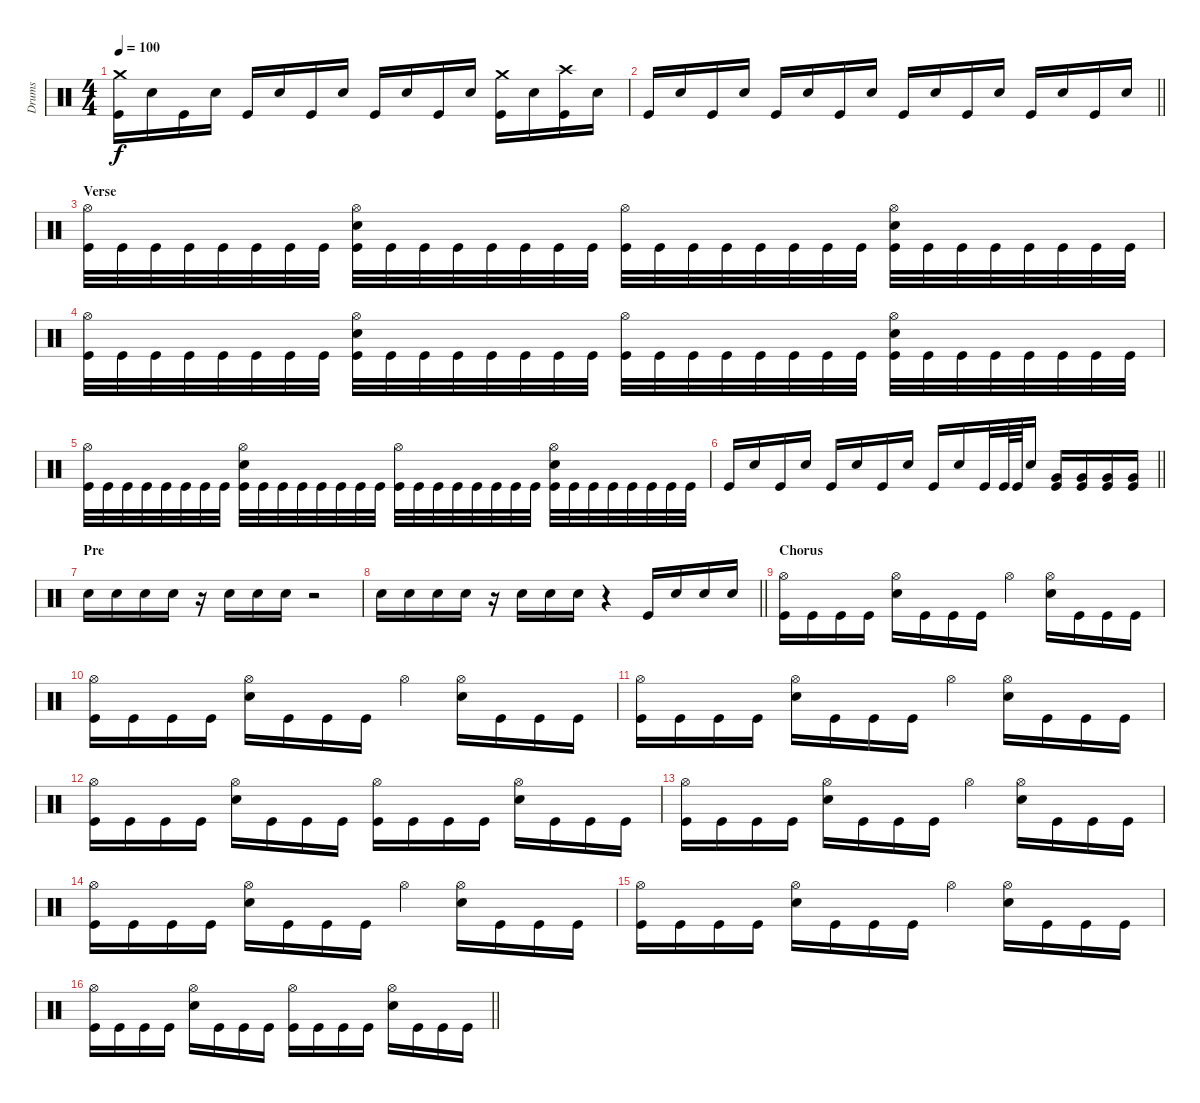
\track ("Drums" "Drums") {instrument percussion}
\staff {score}
\articulation defaults
\ts (4 4)
\tempo 100
\clef neutral
\ks c
("Crash medium (hit)" "Kick (hit)").16{dy f} "Electric Snare (hit)".16 "Kick (hit)".16 "Electric Snare (hit)".16 "Kick (hit)".16 "Electric Snare (hit)".16 "Kick (hit)".16 "Electric Snare (hit)".16 "Kick (hit)".16 "Electric Snare (hit)".16 "Kick (hit)".16 "Electric Snare (hit)".16 ("Crash medium (hit)" "Kick (hit)").16 "Electric Snare (hit)".16 ("Crash high (hit)" "Kick (hit)").16 "Electric Snare (hit)".16 |
\barLineRight lightlight "Kick (hit)".16 "Electric Snare (hit)".16 "Kick (hit)".16 "Electric Snare (hit)".16 "Kick (hit)".16 "Electric Snare (hit)".16 "Kick (hit)".16 "Electric Snare (hit)".16 "Kick (hit)".16 "Electric Snare (hit)".16 "Kick (hit)".16 "Electric Snare (hit)".16 "Kick (hit)".16 "Electric Snare (hit)".16 "Kick (hit)".16 "Electric Snare (hit)".16
|
\section ("" "Verse")
("Hi-Hat (open)" "Kick (hit)").32 "Kick (hit)".32 "Kick (hit)".32 "Kick (hit)".32 "Kick (hit)".32 "Kick (hit)".32 "Kick (hit)".32 "Kick (hit)".32 ("Hi-Hat (open)" "Electric Snare (hit)" "Kick (hit)").32 "Kick (hit)".32 "Kick (hit)".32 "Kick (hit)".32 "Kick (hit)".32 "Kick (hit)".32 "Kick (hit)".32 "Kick (hit)".32 ("Hi-Hat (open)" "Kick (hit)").32 "Kick (hit)".32 "Kick (hit)".32 "Kick (hit)".32 "Kick (hit)".32 "Kick (hit)".32 "Kick (hit)".32 "Kick (hit)".32 ("Hi-Hat (open)" "Electric Snare (hit)" "Kick (hit)").32 "Kick (hit)".32 "Kick (hit)".32 "Kick (hit)".32 "Kick (hit)".32 "Kick (hit)".32 "Kick (hit)".32 "Kick (hit)".32 |
("Hi-Hat (open)" "Kick (hit)").32 "Kick (hit)".32 "Kick (hit)".32 "Kick (hit)".32 "Kick (hit)".32 "Kick (hit)".32 "Kick (hit)".32 "Kick (hit)".32 ("Hi-Hat (open)" "Electric Snare (hit)" "Kick (hit)").32 "Kick (hit)".32 "Kick (hit)".32 "Kick (hit)".32 "Kick (hit)".32 "Kick (hit)".32 "Kick (hit)".32 "Kick (hit)".32 ("Hi-Hat (open)" "Kick (hit)").32 "Kick (hit)".32 "Kick (hit)".32 "Kick (hit)".32 "Kick (hit)".32 "Kick (hit)".32 "Kick (hit)".32 "Kick (hit)".32 ("Hi-Hat (open)" "Electric Snare (hit)" "Kick (hit)").32 "Kick (hit)".32 "Kick (hit)".32 "Kick (hit)".32 "Kick (hit)".32 "Kick (hit)".32 "Kick (hit)".32 "Kick (hit)".32 |
("Hi-Hat (open)" "Kick (hit)").32 "Kick (hit)".32 "Kick (hit)".32 "Kick (hit)".32 "Kick (hit)".32 "Kick (hit)".32 "Kick (hit)".32 "Kick (hit)".32 ("Hi-Hat (open)" "Electric Snare (hit)" "Kick (hit)").32 "Kick (hit)".32 "Kick (hit)".32 "Kick (hit)".32 "Kick (hit)".32 "Kick (hit)".32 "Kick (hit)".32 "Kick (hit)".32 ("Hi-Hat (open)" "Kick (hit)").32 "Kick (hit)".32 "Kick (hit)".32 "Kick (hit)".32 "Kick (hit)".32 "Kick (hit)".32 "Kick (hit)".32 "Kick (hit)".32 ("Hi-Hat (open)" "Electric Snare (hit)" "Kick (hit)").32 "Kick (hit)".32 "Kick (hit)".32 "Kick (hit)".32 "Kick (hit)".32 "Kick (hit)".32 "Kick (hit)".32 "Kick (hit)".32 |
\barLineRight lightlight "Kick (hit)".16 "Electric Snare (hit)".16 "Kick (hit)".16 "Electric Snare (hit)".16 "Kick (hit)".16 "Electric Snare (hit)".16 "Kick (hit)".16 "Electric Snare (hit)".16 "Kick (hit)".16 "Electric Snare (hit)".16 "Kick (hit)".32 "Kick (hit)".64 "Kick (hit)".64 "Electric Snare (hit)".16
("Very Low Tom (hit)" "Kick (hit)").16 ("Very Low Tom (hit)" "Kick (hit)").16 ("Very Low Tom (hit)" "Kick (hit)").16 ("Very Low Tom (hit)" "Kick (hit)").16 |
\section ("" "Pre")
"Electric Snare (hit)".16 "Electric Snare (hit)".16 "Electric Snare (hit)".16 "Electric Snare (hit)".16 r.16 "Electric Snare (hit)".16 "Electric Snare (hit)".16 "Electric Snare (hit)".16 r.2 |
\barLineRight lightlight "Electric Snare (hit)".16 "Electric Snare (hit)".16 "Electric Snare (hit)".16 "Electric Snare (hit)".16
r.16 "Electric Snare (hit)".16 "Electric Snare (hit)".16 "Electric Snare (hit)".16 r.4 "Kick (hit)".16 "Electric Snare (hit)".16 "Electric Snare (hit)".16 "Electric Snare (hit)".16 |
\section ("" "Chorus")
("Hi-Hat (open)" "Kick (hit)").16 "Kick (hit)".16 "Kick (hit)".16 "Kick (hit)".16 ("Hi-Hat (open)" "Electric Snare (hit)").16 "Kick (hit)".16 "Kick (hit)".16 "Kick (hit)".16 "Hi-Hat (open)".4 ("Hi-Hat (open)" "Electric Snare (hit)").16 "Kick (hit)".16 "Kick (hit)".16 "Kick (hit)".16 |
("Hi-Hat (open)" "Kick (hit)").16 "Kick (hit)".16 "Kick (hit)".16 "Kick (hit)".16 ("Hi-Hat (open)" "Electric Snare (hit)").16 "Kick (hit)".16 "Kick (hit)".16 "Kick (hit)".16 "Hi-Hat (open)".4 ("Hi-Hat (open)" "Electric Snare (hit)").16 "Kick (hit)".16 "Kick (hit)".16 "Kick (hit)".16 |
("Hi-Hat (open)" "Kick (hit)").16 "Kick (hit)".16 "Kick (hit)".16 "Kick (hit)".16 ("Hi-Hat (open)" "Electric Snare (hit)").16 "Kick (hit)".16 "Kick (hit)".16 "Kick (hit)".16 "Hi-Hat (open)".4 ("Hi-Hat (open)" "Electric Snare (hit)").16 "Kick (hit)".16 "Kick (hit)".16 "Kick (hit)".16 |
("Hi-Hat (open)" "Kick (hit)").16 "Kick (hit)".16 "Kick (hit)".16 "Kick (hit)".16 ("Hi-Hat (open)" "Electric Snare (hit)").16 "Kick (hit)".16 "Kick (hit)".16 "Kick (hit)".16 ("Hi-Hat (open)" "Kick (hit)").16 "Kick (hit)".16 "Kick (hit)".16 "Kick (hit)".16 ("Hi-Hat (open)" "Electric Snare (hit)").16 "Kick (hit)".16 "Kick (hit)".16 "Kick (hit)".16 |
("Hi-Hat (open)" "Kick (hit)").16 "Kick (hit)".16 "Kick (hit)".16 "Kick (hit)".16 ("Hi-Hat (open)" "Electric Snare (hit)").16 "Kick (hit)".16 "Kick (hit)".16 "Kick (hit)".16 "Hi-Hat (open)".4 ("Hi-Hat (open)" "Electric Snare (hit)").16 "Kick (hit)".16 "Kick (hit)".16 "Kick (hit)".16 |
("Hi-Hat (open)" "Kick (hit)").16 "Kick (hit)".16 "Kick (hit)".16 "Kick (hit)".16 ("Hi-Hat (open)" "Electric Snare (hit)").16 "Kick (hit)".16 "Kick (hit)".16 "Kick (hit)".16 "Hi-Hat (open)".4 ("Hi-Hat (open)" "Electric Snare (hit)").16 "Kick (hit)".16 "Kick (hit)".16 "Kick (hit)".16 |
("Hi-Hat (open)" "Kick (hit)").16 "Kick (hit)".16 "Kick (hit)".16 "Kick (hit)".16 ("Hi-Hat (open)" "Electric Snare (hit)").16 "Kick (hit)".16 "Kick (hit)".16 "Kick (hit)".16 "Hi-Hat (open)".4 ("Hi-Hat (open)" "Electric Snare (hit)").16 "Kick (hit)".16 "Kick (hit)".16 "Kick (hit)".16 |
\barLineRight lightlight
("Hi-Hat (open)" "Kick (hit)").16 "Kick (hit)".16 "Kick (hit)".16 "Kick (hit)".16 ("Hi-Hat (open)" "Electric Snare (hit)").16 "Kick (hit)".16 "Kick (hit)".16 "Kick (hit)".16 ("Hi-Hat (open)" "Kick (hit)").16 "Kick (hit)".16 "Kick (hit)".16 "Kick (hit)".16 ("Hi-Hat (open)" "Electric Snare (hit)").16 "Kick (hit)".16 "Kick (hit)".16 "Kick (hit)".16
